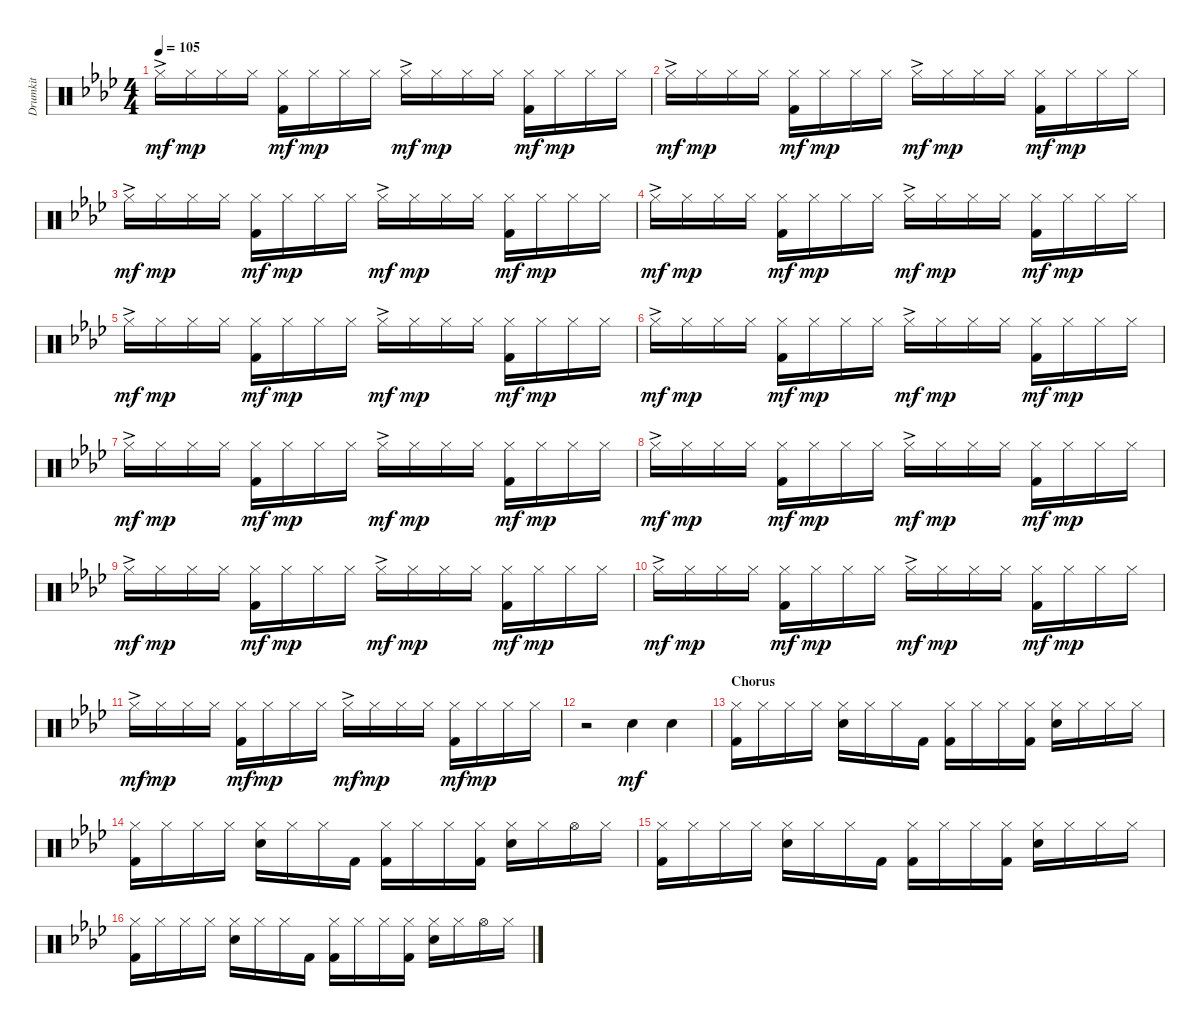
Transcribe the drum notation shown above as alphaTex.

\track ("Drumkit" "Drumkit") {instrument percussion}
\staff {score}
\articulation defaults
\ts (4 4)
\tempo 105
\clef neutral
\ks ab "Hi-Hat (closed)"{ac}.16{dy mf} "Hi-Hat (closed)".16{dy mp} "Hi-Hat (closed)".16 "Hi-Hat (closed)".16
("Kick (hit) 2" "Hi-Hat (closed)").16{dy mf} "Hi-Hat (closed)".16{dy mp} "Hi-Hat (closed)".16 "Hi-Hat (closed)".16 "Hi-Hat (closed)"{ac}.16{dy mf} "Hi-Hat (closed)".16{dy mp} "Hi-Hat (closed)".16 "Hi-Hat (closed)".16 ("Kick (hit) 2" "Hi-Hat (closed)").16{dy mf} "Hi-Hat (closed)".16{dy mp} "Hi-Hat (closed)".16 "Hi-Hat (closed)".16 |
"Hi-Hat (closed)"{ac}.16{dy mf} "Hi-Hat (closed)".16{dy mp} "Hi-Hat (closed)".16 "Hi-Hat (closed)".16 ("Kick (hit) 2" "Hi-Hat (closed)").16{dy mf} "Hi-Hat (closed)".16{dy mp} "Hi-Hat (closed)".16 "Hi-Hat (closed)".16 "Hi-Hat (closed)"{ac}.16{dy mf} "Hi-Hat (closed)".16{dy mp} "Hi-Hat (closed)".16 "Hi-Hat (closed)".16 ("Kick (hit) 2" "Hi-Hat (closed)").16{dy mf} "Hi-Hat (closed)".16{dy mp} "Hi-Hat (closed)".16 "Hi-Hat (closed)".16 |
"Hi-Hat (closed)"{ac}.16{dy mf} "Hi-Hat (closed)".16{dy mp} "Hi-Hat (closed)".16 "Hi-Hat (closed)".16 ("Kick (hit) 2" "Hi-Hat (closed)").16{dy mf} "Hi-Hat (closed)".16{dy mp} "Hi-Hat (closed)".16 "Hi-Hat (closed)".16 "Hi-Hat (closed)"{ac}.16{dy mf} "Hi-Hat (closed)".16{dy mp} "Hi-Hat (closed)".16 "Hi-Hat (closed)".16 ("Kick (hit) 2" "Hi-Hat (closed)").16{dy mf} "Hi-Hat (closed)".16{dy mp} "Hi-Hat (closed)".16 "Hi-Hat (closed)".16 |
"Hi-Hat (closed)"{ac}.16{dy mf} "Hi-Hat (closed)".16{dy mp} "Hi-Hat (closed)".16 "Hi-Hat (closed)".16 ("Kick (hit) 2" "Hi-Hat (closed)").16{dy mf} "Hi-Hat (closed)".16{dy mp} "Hi-Hat (closed)".16 "Hi-Hat (closed)".16 "Hi-Hat (closed)"{ac}.16{dy mf} "Hi-Hat (closed)".16{dy mp} "Hi-Hat (closed)".16 "Hi-Hat (closed)".16 ("Kick (hit) 2" "Hi-Hat (closed)").16{dy mf} "Hi-Hat (closed)".16{dy mp} "Hi-Hat (closed)".16 "Hi-Hat (closed)".16 |
"Hi-Hat (closed)"{ac}.16{dy mf} "Hi-Hat (closed)".16{dy mp} "Hi-Hat (closed)".16 "Hi-Hat (closed)".16 ("Kick (hit) 2" "Hi-Hat (closed)").16{dy mf} "Hi-Hat (closed)".16{dy mp} "Hi-Hat (closed)".16 "Hi-Hat (closed)".16 "Hi-Hat (closed)"{ac}.16{dy mf} "Hi-Hat (closed)".16{dy mp} "Hi-Hat (closed)".16 "Hi-Hat (closed)".16 ("Kick (hit) 2" "Hi-Hat (closed)").16{dy mf} "Hi-Hat (closed)".16{dy mp} "Hi-Hat (closed)".16 "Hi-Hat (closed)".16 |
"Hi-Hat (closed)"{ac}.16{dy mf} "Hi-Hat (closed)".16{dy mp} "Hi-Hat (closed)".16 "Hi-Hat (closed)".16 ("Kick (hit) 2" "Hi-Hat (closed)").16{dy mf} "Hi-Hat (closed)".16{dy mp} "Hi-Hat (closed)".16 "Hi-Hat (closed)".16 "Hi-Hat (closed)"{ac}.16{dy mf} "Hi-Hat (closed)".16{dy mp} "Hi-Hat (closed)".16 "Hi-Hat (closed)".16 ("Kick (hit) 2" "Hi-Hat (closed)").16{dy mf} "Hi-Hat (closed)".16{dy mp} "Hi-Hat (closed)".16 "Hi-Hat (closed)".16 |
"Hi-Hat (closed)"{ac}.16{dy mf} "Hi-Hat (closed)".16{dy mp} "Hi-Hat (closed)".16 "Hi-Hat (closed)".16 ("Kick (hit) 2" "Hi-Hat (closed)").16{dy mf} "Hi-Hat (closed)".16{dy mp} "Hi-Hat (closed)".16 "Hi-Hat (closed)".16 "Hi-Hat (closed)"{ac}.16{dy mf} "Hi-Hat (closed)".16{dy mp} "Hi-Hat (closed)".16 "Hi-Hat (closed)".16 ("Kick (hit) 2" "Hi-Hat (closed)").16{dy mf} "Hi-Hat (closed)".16{dy mp} "Hi-Hat (closed)".16 "Hi-Hat (closed)".16 |
"Hi-Hat (closed)"{ac}.16{dy mf} "Hi-Hat (closed)".16{dy mp} "Hi-Hat (closed)".16 "Hi-Hat (closed)".16 ("Kick (hit) 2" "Hi-Hat (closed)").16{dy mf} "Hi-Hat (closed)".16{dy mp} "Hi-Hat (closed)".16 "Hi-Hat (closed)".16 "Hi-Hat (closed)"{ac}.16{dy mf} "Hi-Hat (closed)".16{dy mp} "Hi-Hat (closed)".16 "Hi-Hat (closed)".16 ("Kick (hit) 2" "Hi-Hat (closed)").16{dy mf} "Hi-Hat (closed)".16{dy mp} "Hi-Hat (closed)".16 "Hi-Hat (closed)".16 |
"Hi-Hat (closed)"{ac}.16{dy mf} "Hi-Hat (closed)".16{dy mp} "Hi-Hat (closed)".16 "Hi-Hat (closed)".16 ("Kick (hit) 2" "Hi-Hat (closed)").16{dy mf} "Hi-Hat (closed)".16{dy mp} "Hi-Hat (closed)".16 "Hi-Hat (closed)".16 "Hi-Hat (closed)"{ac}.16{dy mf} "Hi-Hat (closed)".16{dy mp} "Hi-Hat (closed)".16 "Hi-Hat (closed)".16 ("Kick (hit) 2" "Hi-Hat (closed)").16{dy mf} "Hi-Hat (closed)".16{dy mp} "Hi-Hat (closed)".16 "Hi-Hat (closed)".16 |
"Hi-Hat (closed)"{ac}.16{dy mf} "Hi-Hat (closed)".16{dy mp} "Hi-Hat (closed)".16 "Hi-Hat (closed)".16 ("Kick (hit) 2" "Hi-Hat (closed)").16{dy mf} "Hi-Hat (closed)".16{dy mp} "Hi-Hat (closed)".16 "Hi-Hat (closed)".16 "Hi-Hat (closed)"{ac}.16{dy mf} "Hi-Hat (closed)".16{dy mp} "Hi-Hat (closed)".16 "Hi-Hat (closed)".16 ("Kick (hit) 2" "Hi-Hat (closed)").16{dy mf} "Hi-Hat (closed)".16{dy mp} "Hi-Hat (closed)".16 "Hi-Hat (closed)".16 |
"Hi-Hat (closed)"{ac}.16{dy mf} "Hi-Hat (closed)".16{dy mp} "Hi-Hat (closed)".16 "Hi-Hat (closed)".16 ("Kick (hit) 2" "Hi-Hat (closed)").16{dy mf} "Hi-Hat (closed)".16{dy mp} "Hi-Hat (closed)".16 "Hi-Hat (closed)".16 "Hi-Hat (closed)"{ac}.16{dy mf} "Hi-Hat (closed)".16{dy mp} "Hi-Hat (closed)".16 "Hi-Hat (closed)".16 ("Kick (hit) 2" "Hi-Hat (closed)").16{dy mf} "Hi-Hat (closed)".16{dy mp} "Hi-Hat (closed)".16 "Hi-Hat (closed)".16 |
r.2 "Snare (hit) 2".4{dy mf} "Snare (hit) 2".4 |
\section ("" "Chorus")
("Kick (hit) 2" "Hi-Hat (closed)").16 "Hi-Hat (closed)".16 "Hi-Hat (closed)".16 "Hi-Hat (closed)".16 ("Snare (hit) 2" "Hi-Hat (closed)").16 "Hi-Hat (closed)".16 "Hi-Hat (closed)".16 "Kick (hit) 2".16 ("Kick (hit) 2" "Hi-Hat (closed)").16 "Hi-Hat (closed)".16 "Hi-Hat (closed)".16 ("Kick (hit) 2" "Hi-Hat (closed)").16 ("Snare (hit) 2" "Hi-Hat (closed)").16 "Hi-Hat (closed)".16 "Hi-Hat (closed)".16 "Hi-Hat (closed)".16 |
("Kick (hit) 2" "Hi-Hat (closed)").16 "Hi-Hat (closed)".16 "Hi-Hat (closed)".16 "Hi-Hat (closed)".16 ("Snare (hit) 2" "Hi-Hat (closed)").16 "Hi-Hat (closed)".16 "Hi-Hat (closed)".16 "Kick (hit) 2".16 ("Kick (hit) 2" "Hi-Hat (closed)").16 "Hi-Hat (closed)".16 "Hi-Hat (closed)".16 ("Kick (hit) 2" "Hi-Hat (closed)").16 ("Snare (hit) 2" "Hi-Hat (closed)").16 "Hi-Hat (closed)".16 "Hi-Hat (open)".16 "Hi-Hat (closed)".16 |
("Kick (hit) 2" "Hi-Hat (closed)").16 "Hi-Hat (closed)".16 "Hi-Hat (closed)".16 "Hi-Hat (closed)".16 ("Snare (hit) 2" "Hi-Hat (closed)").16 "Hi-Hat (closed)".16 "Hi-Hat (closed)".16 "Kick (hit) 2".16 ("Kick (hit) 2" "Hi-Hat (closed)").16 "Hi-Hat (closed)".16 "Hi-Hat (closed)".16 ("Kick (hit) 2" "Hi-Hat (closed)").16 ("Snare (hit) 2" "Hi-Hat (closed)").16 "Hi-Hat (closed)".16 "Hi-Hat (closed)".16 "Hi-Hat (closed)".16 |
("Kick (hit) 2" "Hi-Hat (closed)").16 "Hi-Hat (closed)".16 "Hi-Hat (closed)".16 "Hi-Hat (closed)".16 ("Snare (hit) 2" "Hi-Hat (closed)").16 "Hi-Hat (closed)".16 "Hi-Hat (closed)".16 "Kick (hit) 2".16 ("Kick (hit) 2" "Hi-Hat (closed)").16 "Hi-Hat (closed)".16 "Hi-Hat (closed)".16 ("Kick (hit) 2" "Hi-Hat (closed)").16 ("Snare (hit) 2" "Hi-Hat (closed)").16 "Hi-Hat (closed)".16 "Hi-Hat (open)".16 "Hi-Hat (closed)".16
